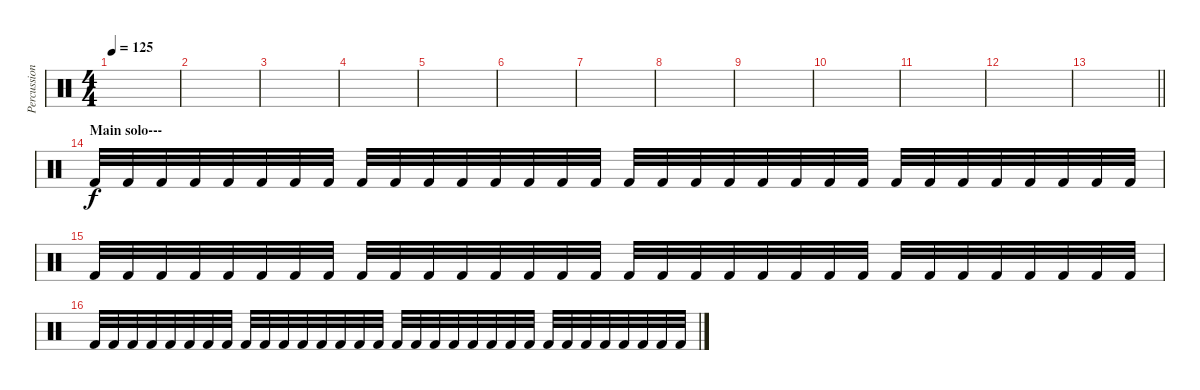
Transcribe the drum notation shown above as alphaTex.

\track ("Percussion" "Percussion") {instrument percussion}
\staff {score}
\articulation defaults
\ts (4 4)
\tempo 125
\clef neutral
\ks c
|
|
|
|
|
|
|
|
|
|
|
|
\barLineRight lightlight
|
\section ("" "Main solo---")
"Kick (hit) 2".32 "Kick (hit) 2".32 "Kick (hit) 2".32 "Kick (hit) 2".32 "Kick (hit) 2".32 "Kick (hit) 2".32 "Kick (hit) 2".32 "Kick (hit) 2".32 "Kick (hit) 2".32 "Kick (hit) 2".32 "Kick (hit) 2".32 "Kick (hit) 2".32 "Kick (hit) 2".32 "Kick (hit) 2".32 "Kick (hit) 2".32 "Kick (hit) 2".32 "Kick (hit) 2".32 "Kick (hit) 2".32 "Kick (hit) 2".32 "Kick (hit) 2".32 "Kick (hit) 2".32 "Kick (hit) 2".32 "Kick (hit) 2".32 "Kick (hit) 2".32 "Kick (hit) 2".32 "Kick (hit) 2".32 "Kick (hit) 2".32 "Kick (hit) 2".32 "Kick (hit) 2".32 "Kick (hit) 2".32 "Kick (hit) 2".32 "Kick (hit) 2".32 |
"Kick (hit) 2".32 "Kick (hit) 2".32 "Kick (hit) 2".32 "Kick (hit) 2".32 "Kick (hit) 2".32 "Kick (hit) 2".32 "Kick (hit) 2".32 "Kick (hit) 2".32 "Kick (hit) 2".32 "Kick (hit) 2".32 "Kick (hit) 2".32 "Kick (hit) 2".32 "Kick (hit) 2".32 "Kick (hit) 2".32 "Kick (hit) 2".32 "Kick (hit) 2".32 "Kick (hit) 2".32 "Kick (hit) 2".32 "Kick (hit) 2".32 "Kick (hit) 2".32 "Kick (hit) 2".32 "Kick (hit) 2".32 "Kick (hit) 2".32 "Kick (hit) 2".32 "Kick (hit) 2".32 "Kick (hit) 2".32 "Kick (hit) 2".32 "Kick (hit) 2".32 "Kick (hit) 2".32 "Kick (hit) 2".32 "Kick (hit) 2".32 "Kick (hit) 2".32 |
"Kick (hit) 2".32 "Kick (hit) 2".32 "Kick (hit) 2".32 "Kick (hit) 2".32 "Kick (hit) 2".32 "Kick (hit) 2".32 "Kick (hit) 2".32 "Kick (hit) 2".32 "Kick (hit) 2".32 "Kick (hit) 2".32 "Kick (hit) 2".32 "Kick (hit) 2".32 "Kick (hit) 2".32 "Kick (hit) 2".32 "Kick (hit) 2".32 "Kick (hit) 2".32 "Kick (hit) 2".32 "Kick (hit) 2".32 "Kick (hit) 2".32 "Kick (hit) 2".32 "Kick (hit) 2".32 "Kick (hit) 2".32 "Kick (hit) 2".32 "Kick (hit) 2".32 "Kick (hit) 2".32 "Kick (hit) 2".32 "Kick (hit) 2".32 "Kick (hit) 2".32 "Kick (hit) 2".32 "Kick (hit) 2".32 "Kick (hit) 2".32 "Kick (hit) 2".32
